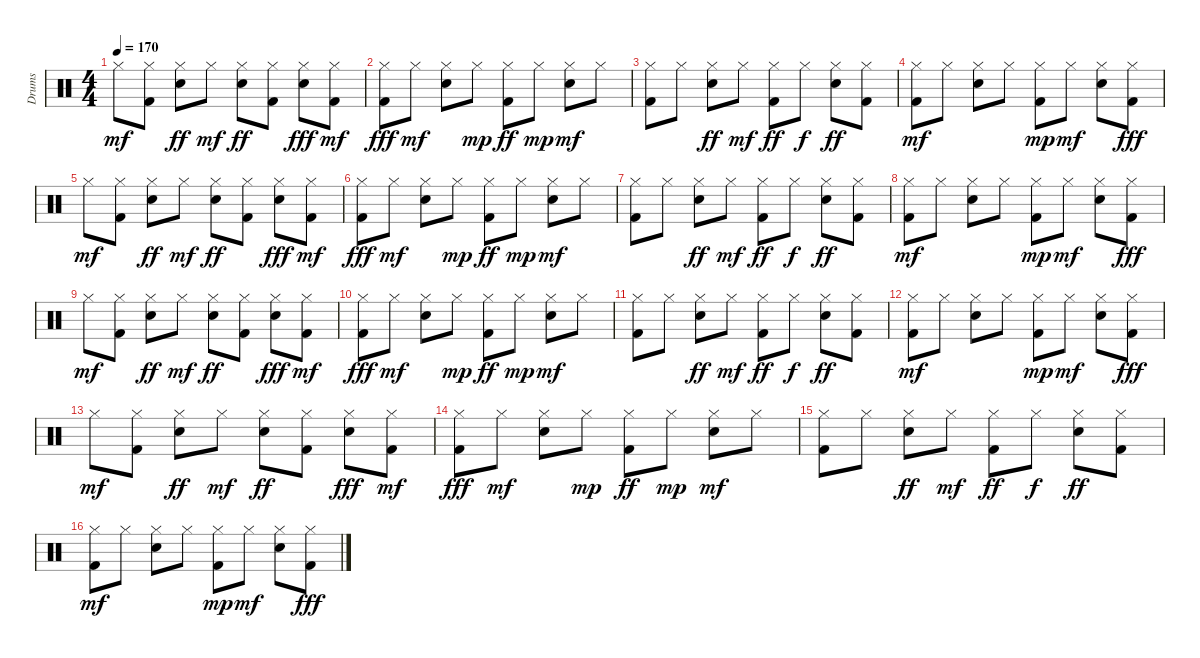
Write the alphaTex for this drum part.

\track ("Drums" "Drums") {instrument percussion}
\staff {score}
\articulation defaults
\ts (4 4)
\tempo 170
\clef neutral
\ks c "Hi-Hat (closed)".8{dy mf}
("Hi-Hat (closed)" "Kick (hit) 2").8 ("Hi-Hat (closed)" "Snare (hit) 2").8{dy ff} "Hi-Hat (closed)".8{dy mf} ("Hi-Hat (closed)" "Snare (hit) 2").8{dy ff} ("Hi-Hat (closed)" "Kick (hit) 2").8 ("Hi-Hat (closed)" "Snare (hit) 2").8{dy fff} ("Hi-Hat (closed)" "Kick (hit) 2").8{dy mf} |
("Hi-Hat (closed)" "Kick (hit) 2").8{dy fff} "Hi-Hat (closed)".8{dy mf} ("Hi-Hat (closed)" "Snare (hit) 2").8 "Hi-Hat (closed)".8{dy mp} ("Hi-Hat (closed)" "Kick (hit) 2").8{dy ff} "Hi-Hat (closed)".8{dy mp} ("Hi-Hat (closed)" "Snare (hit) 2").8{dy mf} "Hi-Hat (closed)".8 |
("Hi-Hat (closed)" "Kick (hit) 2").8 "Hi-Hat (closed)".8 ("Hi-Hat (closed)" "Snare (hit) 2").8{dy ff} "Hi-Hat (closed)".8{dy mf} ("Hi-Hat (closed)" "Kick (hit) 2").8{dy ff} "Hi-Hat (closed)".8{dy f} ("Hi-Hat (closed)" "Snare (hit) 2").8{dy ff} ("Hi-Hat (closed)" "Kick (hit) 2").8 |
("Hi-Hat (closed)" "Kick (hit) 2").8{dy mf} "Hi-Hat (closed)".8 ("Hi-Hat (closed)" "Snare (hit) 2").8 "Hi-Hat (closed)".8 ("Hi-Hat (closed)" "Kick (hit) 2").8{dy mp} "Hi-Hat (closed)".8{dy mf} ("Hi-Hat (closed)" "Snare (hit) 2").8 ("Hi-Hat (closed)" "Kick (hit) 2").8{dy fff} |
"Hi-Hat (closed)".8{dy mf} ("Hi-Hat (closed)" "Kick (hit) 2").8 ("Hi-Hat (closed)" "Snare (hit) 2").8{dy ff} "Hi-Hat (closed)".8{dy mf} ("Hi-Hat (closed)" "Snare (hit) 2").8{dy ff} ("Hi-Hat (closed)" "Kick (hit) 2").8 ("Hi-Hat (closed)" "Snare (hit) 2").8{dy fff} ("Hi-Hat (closed)" "Kick (hit) 2").8{dy mf} |
("Hi-Hat (closed)" "Kick (hit) 2").8{dy fff} "Hi-Hat (closed)".8{dy mf} ("Hi-Hat (closed)" "Snare (hit) 2").8 "Hi-Hat (closed)".8{dy mp} ("Hi-Hat (closed)" "Kick (hit) 2").8{dy ff} "Hi-Hat (closed)".8{dy mp} ("Hi-Hat (closed)" "Snare (hit) 2").8{dy mf} "Hi-Hat (closed)".8 |
("Hi-Hat (closed)" "Kick (hit) 2").8 "Hi-Hat (closed)".8 ("Hi-Hat (closed)" "Snare (hit) 2").8{dy ff} "Hi-Hat (closed)".8{dy mf} ("Hi-Hat (closed)" "Kick (hit) 2").8{dy ff} "Hi-Hat (closed)".8{dy f} ("Hi-Hat (closed)" "Snare (hit) 2").8{dy ff} ("Hi-Hat (closed)" "Kick (hit) 2").8 |
("Hi-Hat (closed)" "Kick (hit) 2").8{dy mf} "Hi-Hat (closed)".8 ("Hi-Hat (closed)" "Snare (hit) 2").8 "Hi-Hat (closed)".8 ("Hi-Hat (closed)" "Kick (hit) 2").8{dy mp} "Hi-Hat (closed)".8{dy mf} ("Hi-Hat (closed)" "Snare (hit) 2").8 ("Hi-Hat (closed)" "Kick (hit) 2").8{dy fff} |
"Hi-Hat (closed)".8{dy mf} ("Hi-Hat (closed)" "Kick (hit) 2").8 ("Hi-Hat (closed)" "Snare (hit) 2").8{dy ff} "Hi-Hat (closed)".8{dy mf} ("Hi-Hat (closed)" "Snare (hit) 2").8{dy ff} ("Hi-Hat (closed)" "Kick (hit) 2").8 ("Hi-Hat (closed)" "Snare (hit) 2").8{dy fff} ("Hi-Hat (closed)" "Kick (hit) 2").8{dy mf} |
("Hi-Hat (closed)" "Kick (hit) 2").8{dy fff} "Hi-Hat (closed)".8{dy mf} ("Hi-Hat (closed)" "Snare (hit) 2").8 "Hi-Hat (closed)".8{dy mp} ("Hi-Hat (closed)" "Kick (hit) 2").8{dy ff} "Hi-Hat (closed)".8{dy mp} ("Hi-Hat (closed)" "Snare (hit) 2").8{dy mf} "Hi-Hat (closed)".8 |
("Hi-Hat (closed)" "Kick (hit) 2").8 "Hi-Hat (closed)".8 ("Hi-Hat (closed)" "Snare (hit) 2").8{dy ff} "Hi-Hat (closed)".8{dy mf} ("Hi-Hat (closed)" "Kick (hit) 2").8{dy ff} "Hi-Hat (closed)".8{dy f} ("Hi-Hat (closed)" "Snare (hit) 2").8{dy ff} ("Hi-Hat (closed)" "Kick (hit) 2").8 |
("Hi-Hat (closed)" "Kick (hit) 2").8{dy mf} "Hi-Hat (closed)".8 ("Hi-Hat (closed)" "Snare (hit) 2").8 "Hi-Hat (closed)".8 ("Hi-Hat (closed)" "Kick (hit) 2").8{dy mp} "Hi-Hat (closed)".8{dy mf} ("Hi-Hat (closed)" "Snare (hit) 2").8 ("Hi-Hat (closed)" "Kick (hit) 2").8{dy fff} |
"Hi-Hat (closed)".8{dy mf} ("Hi-Hat (closed)" "Kick (hit) 2").8 ("Hi-Hat (closed)" "Snare (hit) 2").8{dy ff} "Hi-Hat (closed)".8{dy mf} ("Hi-Hat (closed)" "Snare (hit) 2").8{dy ff} ("Hi-Hat (closed)" "Kick (hit) 2").8 ("Hi-Hat (closed)" "Snare (hit) 2").8{dy fff} ("Hi-Hat (closed)" "Kick (hit) 2").8{dy mf} |
("Hi-Hat (closed)" "Kick (hit) 2").8{dy fff} "Hi-Hat (closed)".8{dy mf} ("Hi-Hat (closed)" "Snare (hit) 2").8 "Hi-Hat (closed)".8{dy mp} ("Hi-Hat (closed)" "Kick (hit) 2").8{dy ff} "Hi-Hat (closed)".8{dy mp} ("Hi-Hat (closed)" "Snare (hit) 2").8{dy mf} "Hi-Hat (closed)".8 |
("Hi-Hat (closed)" "Kick (hit) 2").8 "Hi-Hat (closed)".8 ("Hi-Hat (closed)" "Snare (hit) 2").8{dy ff} "Hi-Hat (closed)".8{dy mf} ("Hi-Hat (closed)" "Kick (hit) 2").8{dy ff} "Hi-Hat (closed)".8{dy f} ("Hi-Hat (closed)" "Snare (hit) 2").8{dy ff} ("Hi-Hat (closed)" "Kick (hit) 2").8 |
("Hi-Hat (closed)" "Kick (hit) 2").8{dy mf} "Hi-Hat (closed)".8 ("Hi-Hat (closed)" "Snare (hit) 2").8 "Hi-Hat (closed)".8 ("Hi-Hat (closed)" "Kick (hit) 2").8{dy mp} "Hi-Hat (closed)".8{dy mf} ("Hi-Hat (closed)" "Snare (hit) 2").8 ("Hi-Hat (closed)" "Kick (hit) 2").8{dy fff}
